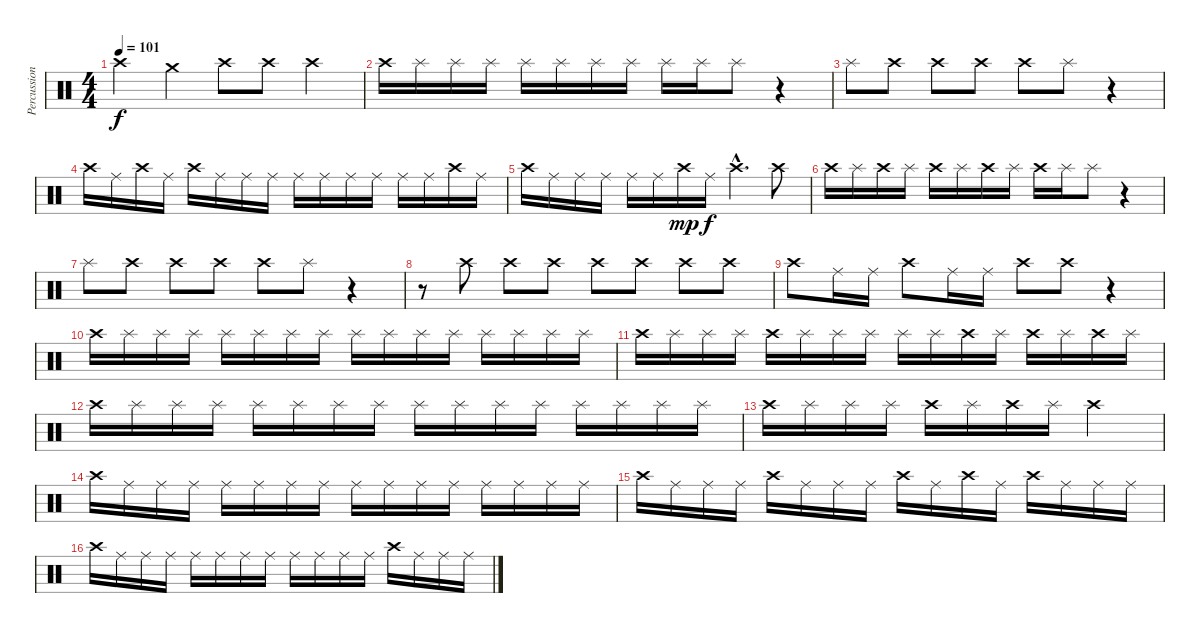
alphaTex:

\track ("Percussion2" "Percussion") {instrument percussion}
\staff {score}
\articulation defaults
\ts (4 4)
\tempo 101
\clef neutral
\ks c "Crash high (hit)".4{dy f} "Crash medium (hit)".4 "Crash high (hit)".8 "Crash high (hit)".8 "Crash high (hit)".4
|
"Crash high (hit)".16 "Splash (hit)".16 "Splash (hit)".16 "Splash (hit)".16 "Splash (hit)".16 "Splash (hit)".16 "Splash (hit)".16 "Splash (hit)".16 "Splash (hit)".16 "Splash (hit)".16 "Splash (hit)".8 r.4 |
"Splash (hit)".8 "Crash high (hit)".8 "Crash high (hit)".8 "Crash high (hit)".8 "Crash high (hit)".8 "Splash (hit)".8 r.4 |
"Crash high (hit)".16 "Ride (middle)".16 "Crash high (hit)".16 "Ride (middle)".16 "Crash high (hit)".16 "Ride (middle)".16 "Ride (middle)".16 "Ride (middle)".16 "Ride (middle)".16 "Ride (middle)".16 "Ride (middle)".16 "Ride (middle)".16 "Ride (middle)".16 "Ride (middle)".16 "Crash high (hit)".16 "Ride (middle)".16 |
"Crash high (hit)".16 "Ride (middle)".16 "Ride (middle)".16 "Ride (middle)".16 "Ride (middle)".16 "Ride (middle)".16 "Crash high (hit)".16{dy mp} "Ride (middle)".16{dy f} "Crash high (hit)"{hac}.4{d} "Crash high (hit)".8 |
"Crash high (hit)".16 "Splash (hit)".16 "Crash high (hit)".16 "Splash (hit)".16 "Crash high (hit)".16 "Splash (hit)".16 "Crash high (hit)".16 "Splash (hit)".16 "Crash high (hit)".16 "Splash (hit)".16 "Splash (hit)".8 r.4 |
"Splash (hit)".8 "Crash high (hit)".8 "Crash high (hit)".8 "Crash high (hit)".8 "Crash high (hit)".8 "Splash (hit)".8 r.4 |
r.8 "Crash high (hit)".8 "Crash high (hit)".8 "Crash high (hit)".8 "Crash high (hit)".8 "Crash high (hit)".8 "Crash high (hit)".8 "Crash high (hit)".8 |
"Crash high (hit)".8 "Ride (middle)".16 "Ride (middle)".16 "Crash high (hit)".8 "Ride (middle)".16 "Ride (middle)".16 "Crash high (hit)".8 "Crash high (hit)".8 r.4 |
"Crash high (hit)".16 "Splash (hit)".16 "Splash (hit)".16 "Splash (hit)".16 "Splash (hit)".16 "Splash (hit)".16 "Splash (hit)".16 "Splash (hit)".16 "Splash (hit)".16 "Splash (hit)".16 "Splash (hit)".16 "Splash (hit)".16 "Splash (hit)".16 "Splash (hit)".16 "Splash (hit)".16 "Splash (hit)".16 |
"Crash high (hit)".16 "Splash (hit)".16 "Splash (hit)".16 "Splash (hit)".16 "Crash high (hit)".16 "Splash (hit)".16 "Splash (hit)".16 "Splash (hit)".16 "Splash (hit)".16 "Splash (hit)".16 "Crash high (hit)".16 "Splash (hit)".16 "Crash high (hit)".16 "Splash (hit)".16 "Crash high (hit)".16 "Splash (hit)".16 |
"Crash high (hit)".16 "Splash (hit)".16 "Splash (hit)".16 "Splash (hit)".16 "Splash (hit)".16 "Splash (hit)".16 "Splash (hit)".16 "Splash (hit)".16 "Splash (hit)".16 "Splash (hit)".16 "Splash (hit)".16 "Splash (hit)".16 "Splash (hit)".16 "Splash (hit)".16 "Splash (hit)".16 "Splash (hit)".16 |
"Crash high (hit)".16 "Splash (hit)".16 "Splash (hit)".16 "Splash (hit)".16 "Crash high (hit)".16 "Splash (hit)".16 "Crash high (hit)".16 "Splash (hit)".16 "Crash high (hit)".2 |
"Crash high (hit)".16 "Ride (middle)".16 "Ride (middle)".16 "Ride (middle)".16 "Ride (middle)".16 "Ride (middle)".16 "Ride (middle)".16 "Ride (middle)".16 "Ride (middle)".16 "Ride (middle)".16 "Ride (middle)".16 "Ride (middle)".16 "Ride (middle)".16 "Ride (middle)".16 "Ride (middle)".16 "Ride (middle)".16 |
"Crash high (hit)".16 "Ride (middle)".16 "Ride (middle)".16 "Ride (middle)".16 "Crash high (hit)".16 "Ride (middle)".16 "Ride (middle)".16 "Ride (middle)".16 "Crash high (hit)".16 "Ride (middle)".16 "Crash high (hit)".16 "Ride (middle)".16 "Crash high (hit)".16 "Ride (middle)".16 "Ride (middle)".16 "Ride (middle)".16 |
"Crash high (hit)".16 "Ride (middle)".16 "Ride (middle)".16 "Ride (middle)".16 "Ride (middle)".16 "Ride (middle)".16 "Ride (middle)".16 "Ride (middle)".16 "Ride (middle)".16 "Ride (middle)".16 "Ride (middle)".16 "Ride (middle)".16 "Crash high (hit)".16 "Ride (middle)".16 "Ride (middle)".16 "Ride (middle)".16
